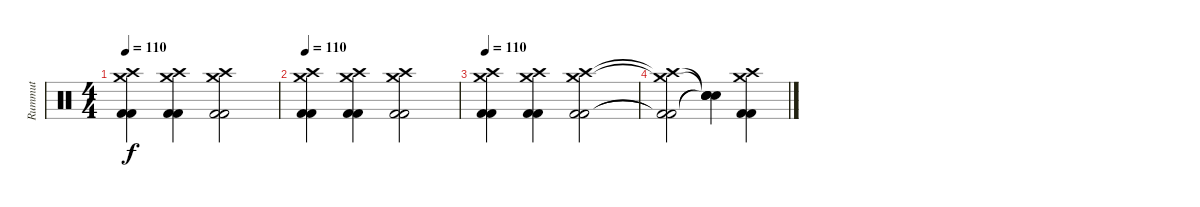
\track ("Rummut" "Rummut") {instrument percussion}
\staff {score}
\articulation defaults
\ts (4 4)
\tempo 110
\clef neutral
\ks c
("Crash medium (hit)" "Crash high (hit)" "Kick (hit) 2" "Kick (hit) 2").4{dy f} ("Crash medium (hit)" "Crash high (hit)" "Kick (hit) 2" "Kick (hit) 2").4 ("Crash medium (hit)" "Crash high (hit)" "Kick (hit) 2" "Kick (hit) 2").2 |
\tempo 110
("Crash medium (hit)" "Crash high (hit)" "Kick (hit) 2" "Kick (hit) 2").4 ("Crash medium (hit)" "Crash high (hit)" "Kick (hit) 2" "Kick (hit) 2").4 ("Crash medium (hit)" "Crash high (hit)" "Kick (hit) 2" "Kick (hit) 2").2 |
\tempo 110
("Crash medium (hit)" "Crash high (hit)" "Kick (hit) 2" "Kick (hit) 2").4 ("Crash medium (hit)" "Crash high (hit)" "Kick (hit) 2" "Kick (hit) 2").4 ("Crash medium (hit)" "Crash high (hit)" "Kick (hit) 2" "Kick (hit) 2").2 |
("Crash medium (hit)"{t} "Crash high (hit)"{t} "Kick (hit) 2"{t} "Kick (hit) 2"{t}).2 ("Snare (hit)"{t} "Snare (hit)"{t} "Snare (hit)"{t} "Snare (hit)"{t}).4 ("Crash medium (hit)" "Crash high (hit)" "Kick (hit) 2" "Kick (hit) 2").4
